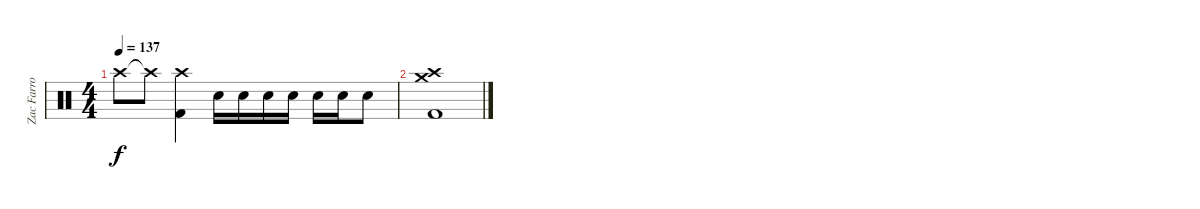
\track ("Zac Farro" "Zac Farro") {instrument percussion}
\staff
\articulation defaults
\ts (4 4)
\tempo 137
\clef neutral
\ks c "Crash high (hit)".8{dy f} "Crash high (hit)"{t}.8
("Crash high (hit)" "Kick (hit) 2").4 "Electric Snare (hit)".16 "Electric Snare (hit)".16 "Electric Snare (hit)".16 "Electric Snare (hit)".16 "Electric Snare (hit)".16 "Electric Snare (hit)".16 "Electric Snare (hit)".8 |
("Crash high (hit)" "Crash medium (hit)" "Kick (hit) 2").1
